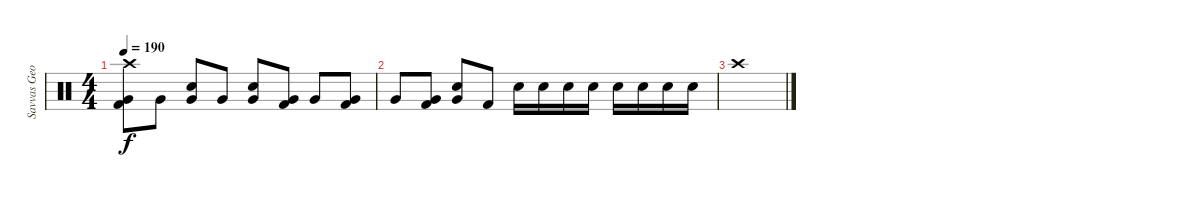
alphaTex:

\track ("Savvas Georgiadis" "Savvas Geo") {instrument percussion}
\staff {score}
\articulation defaults
\ts (4 4)
\tempo 190
\clef neutral
\ks c
("Crash high (hit)" "Kick (hit) 2" "Very Low Tom (hit)").8{dy f} "Very Low Tom (hit)".8 ("Electric Snare (hit)" "Very Low Tom (hit)").8 "Very Low Tom (hit)".8 ("Electric Snare (hit)" "Very Low Tom (hit)").8 ("Kick (hit) 2" "Very Low Tom (hit)").8 "Very Low Tom (hit)".8 ("Kick (hit) 2" "Very Low Tom (hit)").8 |
"Very Low Tom (hit)".8 ("Kick (hit) 2" "Very Low Tom (hit)").8 ("Electric Snare (hit)" "Very Low Tom (hit)").8 "Kick (hit) 2".8 "Electric Snare (hit)".16 "Electric Snare (hit)".16 "Electric Snare (hit)".16 "Electric Snare (hit)".16 "Electric Snare (hit)".16 "Electric Snare (hit)".16 "Electric Snare (hit)".16 "Electric Snare (hit)".16 |
"Crash high (hit)".1
